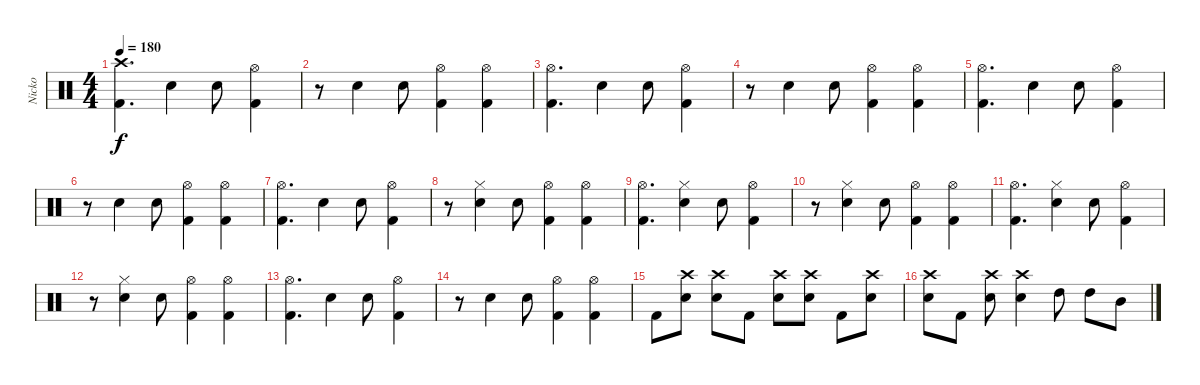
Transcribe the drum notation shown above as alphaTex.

\track ("Nicko" "Nicko") {instrument percussion}
\staff {score}
\articulation defaults
\ts (4 4)
\tempo 180
\clef neutral
\ks c
("Crash high (hit)" "Kick (hit) 2").4{d dy f} "Snare (hit) 2".4 "Snare (hit) 2".8 ("Hi-Hat (open)" "Kick (hit) 2").4 |
r.8 "Snare (hit) 2".4 "Snare (hit) 2".8 ("Hi-Hat (open)" "Kick (hit) 2").4 ("Hi-Hat (open)" "Kick (hit) 2").4 |
("Hi-Hat (open)" "Kick (hit) 2").4{d} "Snare (hit) 2".4 "Snare (hit) 2".8 ("Hi-Hat (open)" "Kick (hit) 2").4 |
r.8 "Snare (hit) 2".4 "Snare (hit) 2".8 ("Hi-Hat (open)" "Kick (hit) 2").4 ("Hi-Hat (open)" "Kick (hit) 2").4 |
("Hi-Hat (open)" "Kick (hit) 2").4{d} "Snare (hit) 2".4 "Snare (hit) 2".8 ("Hi-Hat (open)" "Kick (hit) 2").4 |
r.8 "Snare (hit) 2".4 "Snare (hit) 2".8 ("Hi-Hat (open)" "Kick (hit) 2").4 ("Hi-Hat (open)" "Kick (hit) 2").4 |
("Hi-Hat (open)" "Kick (hit) 2").4{d} "Snare (hit) 2".4 "Snare (hit) 2".8 ("Hi-Hat (open)" "Kick (hit) 2").4 |
r.8 ("Hi-Hat (closed)" "Snare (hit) 2").4 "Snare (hit) 2".8 ("Hi-Hat (open)" "Kick (hit) 2").4 ("Hi-Hat (open)" "Kick (hit) 2").4 |
("Hi-Hat (open)" "Kick (hit) 2").4{d} ("Hi-Hat (closed)" "Snare (hit) 2").4 "Snare (hit) 2".8 ("Hi-Hat (open)" "Kick (hit) 2").4 |
r.8 ("Hi-Hat (closed)" "Snare (hit) 2").4 "Snare (hit) 2".8 ("Hi-Hat (open)" "Kick (hit) 2").4 ("Hi-Hat (open)" "Kick (hit) 2").4 |
("Hi-Hat (open)" "Kick (hit) 2").4{d} ("Hi-Hat (closed)" "Snare (hit) 2").4 "Snare (hit) 2".8 ("Hi-Hat (open)" "Kick (hit) 2").4 |
r.8 ("Hi-Hat (closed)" "Snare (hit) 2").4 "Snare (hit) 2".8 ("Hi-Hat (open)" "Kick (hit) 2").4 ("Hi-Hat (open)" "Kick (hit) 2").4 |
("Hi-Hat (open)" "Kick (hit) 2").4{d} "Snare (hit) 2".4 "Snare (hit) 2".8 ("Hi-Hat (open)" "Kick (hit) 2").4 |
r.8 "Snare (hit) 2".4 "Snare (hit) 2".8 ("Hi-Hat (open)" "Kick (hit) 2").4 ("Hi-Hat (open)" "Kick (hit) 2").4 |
"Kick (hit) 2".8 ("Crash high (hit)" "Snare (hit) 2").8 ("Crash high (hit)" "Snare (hit) 2").8 "Kick (hit) 2".8 ("Crash high (hit)" "Snare (hit) 2").8 ("Crash high (hit)" "Snare (hit) 2").8 "Kick (hit) 2".8 ("Crash high (hit)" "Snare (hit) 2").8 |
("Crash high (hit)" "Snare (hit) 2").8 "Kick (hit) 2".8 ("Crash high (hit)" "Snare (hit) 2").8 ("Crash high (hit)" "Snare (hit) 2").4 "High Tom (hit)".8 "High Tom (hit)".8 "Mid Tom (hit)".8
